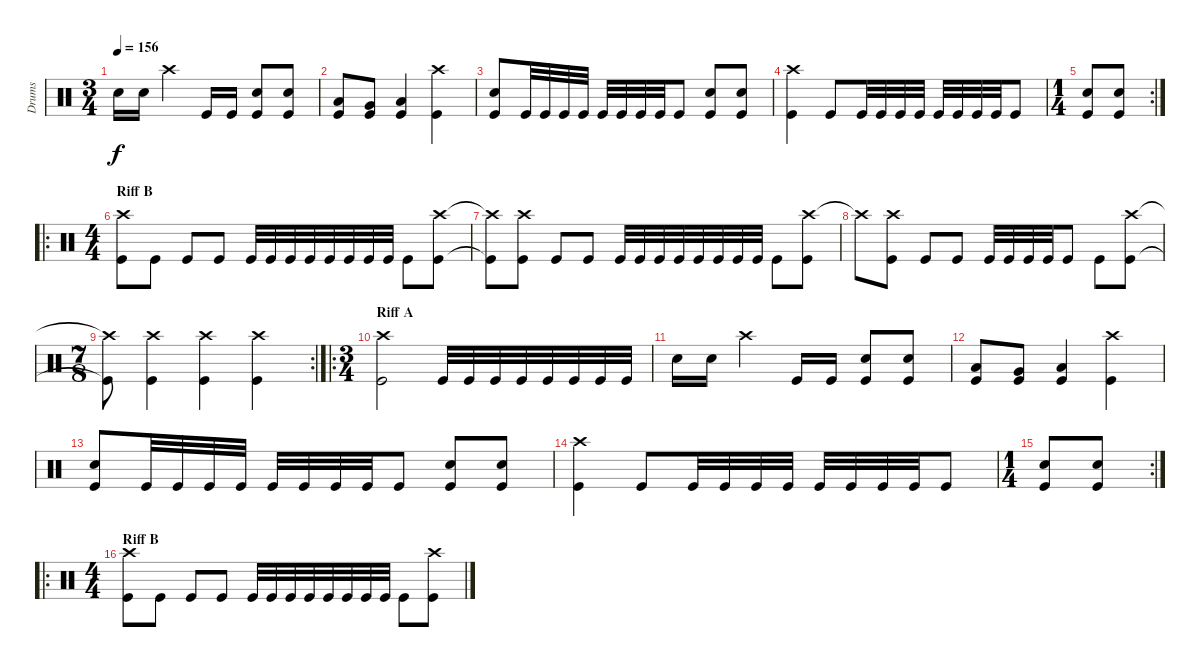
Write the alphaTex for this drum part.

\track ("Drums" "Drums") {instrument percussion}
\staff {score}
\articulation defaults
\ts (3 4)
\tempo 156
\clef neutral
\ks c "Electric Snare (hit)".16{dy f} "Electric Snare (hit)".16 "Crash high (hit)".4 "Kick (hit)".16 "Kick (hit)".16
("Electric Snare (hit)" "Kick (hit)").8 ("Kick (hit)" "Electric Snare (hit)").8 |
("Low Tom (hit)" "Kick (hit)").8 ("Very Low Tom (hit)" "Kick (hit)").8 ("Low Floor Tom (hit)" "Kick (hit)").4 ("Crash high (hit)" "Kick (hit)").4 |
("Electric Snare (hit)" "Kick (hit)").8 "Kick (hit)".32 "Kick (hit)".32 "Kick (hit)".32 "Kick (hit)".32 "Kick (hit)".32 "Kick (hit)".32 "Kick (hit)".32 "Kick (hit)".32 "Kick (hit)".8 ("Electric Snare (hit)" "Kick (hit)").8 ("Electric Snare (hit)" "Kick (hit)").8 |
("Crash high (hit)" "Kick (hit)").4 "Kick (hit)".8 "Kick (hit)".32 "Kick (hit)".32 "Kick (hit)".32 "Kick (hit)".32 "Kick (hit)".32 "Kick (hit)".32 "Kick (hit)".32 "Kick (hit)".32 "Kick (hit)".8 |
\rc 2
\ts (1 4)
("Electric Snare (hit)" "Kick (hit)").8 ("Electric Snare (hit)" "Kick (hit)").8 |
\ro
\ts (4 4)
\section ("" "Riff B")
("Crash high (hit)" "Kick (hit)").8 "Kick (hit)".8 "Kick (hit)".8 "Kick (hit)".8 "Kick (hit)".32 "Kick (hit)".32 "Kick (hit)".32 "Kick (hit)".32 "Kick (hit)".32 "Kick (hit)".32 "Kick (hit)".32 "Kick (hit)".32 "Kick (hit)".8 ("Crash high (hit)" "Kick (hit)").8 |
("Crash high (hit)"{t} "Kick (hit)"{t}).8 ("Crash high (hit)" "Kick (hit)").8 "Kick (hit)".8 "Kick (hit)".8 "Kick (hit)".32 "Kick (hit)".32 "Kick (hit)".32 "Kick (hit)".32 "Kick (hit)".32 "Kick (hit)".32 "Kick (hit)".32 "Kick (hit)".32 "Kick (hit)".8 ("Crash high (hit)" "Kick (hit)").8 |
"Crash high (hit)"{t}.8 ("Crash high (hit)" "Kick (hit)").8 "Kick (hit)".8 "Kick (hit)".8 "Kick (hit)".32 "Kick (hit)".32 "Kick (hit)".32 "Kick (hit)".32 "Kick (hit)".8 "Kick (hit)".8 ("Crash high (hit)" "Kick (hit)").8 |
\rc 2
\ts (7 8)
("Crash high (hit)"{t} "Kick (hit)"{t}).8 ("Crash high (hit)" "Kick (hit)").4 ("Crash high (hit)" "Kick (hit)").4 ("Crash high (hit)" "Kick (hit)").4 |
\ro
\ts (3 4)
\section ("" "Riff A")
("Crash high (hit)" "Kick (hit)").2 "Kick (hit)".32 "Kick (hit)".32 "Kick (hit)".32 "Kick (hit)".32 "Kick (hit)".32 "Kick (hit)".32 "Kick (hit)".32 "Kick (hit)".32 |
"Electric Snare (hit)".16 "Electric Snare (hit)".16 "Crash high (hit)".4 "Kick (hit)".16 "Kick (hit)".16 ("Electric Snare (hit)" "Kick (hit)").8 ("Kick (hit)" "Electric Snare (hit)").8 |
("Low Tom (hit)" "Kick (hit)").8 ("Very Low Tom (hit)" "Kick (hit)").8 ("Low Floor Tom (hit)" "Kick (hit)").4 ("Crash high (hit)" "Kick (hit)").4 |
("Electric Snare (hit)" "Kick (hit)").8 "Kick (hit)".32 "Kick (hit)".32 "Kick (hit)".32 "Kick (hit)".32 "Kick (hit)".32 "Kick (hit)".32 "Kick (hit)".32 "Kick (hit)".32 "Kick (hit)".8 ("Electric Snare (hit)" "Kick (hit)").8 ("Electric Snare (hit)" "Kick (hit)").8 |
("Crash high (hit)" "Kick (hit)").4 "Kick (hit)".8 "Kick (hit)".32 "Kick (hit)".32 "Kick (hit)".32 "Kick (hit)".32 "Kick (hit)".32 "Kick (hit)".32 "Kick (hit)".32 "Kick (hit)".32 "Kick (hit)".8 |
\rc 2
\ts (1 4)
("Electric Snare (hit)" "Kick (hit)").8 ("Electric Snare (hit)" "Kick (hit)").8 |
\ro
\ts (4 4)
\section ("" "Riff B")
("Crash high (hit)" "Kick (hit)").8 "Kick (hit)".8 "Kick (hit)".8 "Kick (hit)".8 "Kick (hit)".32 "Kick (hit)".32 "Kick (hit)".32 "Kick (hit)".32 "Kick (hit)".32 "Kick (hit)".32 "Kick (hit)".32 "Kick (hit)".32 "Kick (hit)".8 ("Crash high (hit)" "Kick (hit)").8
